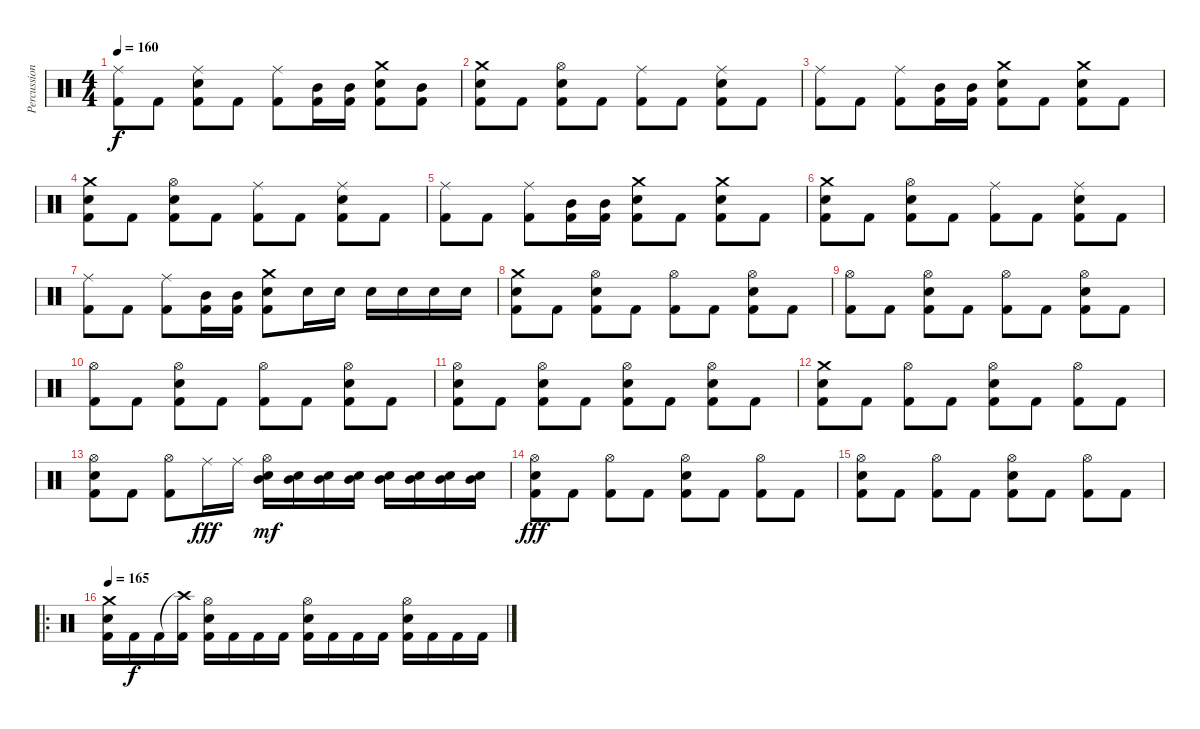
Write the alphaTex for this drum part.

\track ("Percussion" "Percussion") {instrument percussion}
\staff {score}
\articulation defaults
\ts (4 4)
\tempo 160
\clef neutral
\ks c
("Ride (middle)" "Kick (hit) 2").8{dy f} "Kick (hit) 2".8 ("Ride (middle)" "Electric Snare (hit)" "Kick (hit) 2").8 "Kick (hit) 2".8 ("Ride (middle)" "Kick (hit) 2").8 ("Mid Tom (hit)" "Kick (hit) 2").16 ("Mid Tom (hit)" "Kick (hit) 2").16 ("Crash medium (hit)" "Electric Snare (hit)" "Kick (hit) 2").8 ("Mid Tom (hit)" "Kick (hit) 2").8 |
("Crash medium (hit)" "Electric Snare (hit)" "Kick (hit) 2").8 "Kick (hit) 2".8 ("Hi-Hat (open)" "Electric Snare (hit)" "Kick (hit) 2").8 "Kick (hit) 2".8 ("Ride (middle)" "Kick (hit) 2").8 "Kick (hit) 2".8 ("Ride (middle)" "Electric Snare (hit)" "Kick (hit) 2").8 "Kick (hit) 2".8 |
("Ride (middle)" "Kick (hit) 2").8 "Kick (hit) 2".8 ("Ride (middle)" "Kick (hit) 2").8 ("Mid Tom (hit)" "Kick (hit) 2").16 ("Mid Tom (hit)" "Kick (hit) 2").16 ("Crash medium (hit)" "Electric Snare (hit)" "Kick (hit) 2").8 "Kick (hit) 2".8 ("Crash medium (hit)" "Electric Snare (hit)" "Kick (hit) 2").8 "Kick (hit) 2".8 |
("Crash medium (hit)" "Electric Snare (hit)" "Kick (hit) 2").8 "Kick (hit) 2".8 ("Hi-Hat (open)" "Electric Snare (hit)" "Kick (hit) 2").8 "Kick (hit) 2".8 ("Ride (middle)" "Kick (hit) 2").8 "Kick (hit) 2".8 ("Ride (middle)" "Electric Snare (hit)" "Kick (hit) 2").8 "Kick (hit) 2".8 |
("Ride (middle)" "Kick (hit) 2").8 "Kick (hit) 2".8 ("Ride (middle)" "Kick (hit) 2").8 ("Mid Tom (hit)" "Kick (hit) 2").16 ("Mid Tom (hit)" "Kick (hit) 2").16 ("Crash medium (hit)" "Electric Snare (hit)" "Kick (hit) 2").8 "Kick (hit) 2".8 ("Crash medium (hit)" "Electric Snare (hit)" "Kick (hit) 2").8 "Kick (hit) 2".8 |
("Crash medium (hit)" "Electric Snare (hit)" "Kick (hit) 2").8 "Kick (hit) 2".8 ("Hi-Hat (open)" "Electric Snare (hit)" "Kick (hit) 2").8 "Kick (hit) 2".8 ("Ride (middle)" "Kick (hit) 2").8 "Kick (hit) 2".8 ("Ride (middle)" "Electric Snare (hit)" "Kick (hit) 2").8 "Kick (hit) 2".8 |
("Ride (middle)" "Kick (hit) 2").8 "Kick (hit) 2".8 ("Ride (middle)" "Kick (hit) 2").8 ("Mid Tom (hit)" "Kick (hit) 2").16 ("Mid Tom (hit)" "Kick (hit) 2").16 ("Crash medium (hit)" "Electric Snare (hit)" "Kick (hit) 2").8 "Electric Snare (hit)".16 "Electric Snare (hit)".16 "Electric Snare (hit)".16 "Electric Snare (hit)".16 "Electric Snare (hit)".16 "Electric Snare (hit)".16 |
("Crash medium (hit)" "Electric Snare (hit)" "Kick (hit) 2").8 "Kick (hit) 2".8 ("Hi-Hat (open)" "Electric Snare (hit)" "Kick (hit) 2").8 "Kick (hit) 2".8 ("Hi-Hat (open)" "Kick (hit) 2").8 "Kick (hit) 2".8 ("Hi-Hat (open)" "Electric Snare (hit)" "Kick (hit) 2").8 "Kick (hit) 2".8 |
("Hi-Hat (open)" "Kick (hit) 2").8 "Kick (hit) 2".8 ("Hi-Hat (open)" "Electric Snare (hit)" "Kick (hit) 2").8 "Kick (hit) 2".8 ("Hi-Hat (open)" "Kick (hit) 2").8 "Kick (hit) 2".8 ("Hi-Hat (open)" "Electric Snare (hit)" "Kick (hit) 2").8 "Kick (hit) 2".8 |
("Hi-Hat (open)" "Kick (hit) 2").8 "Kick (hit) 2".8 ("Hi-Hat (open)" "Electric Snare (hit)" "Kick (hit) 2").8 "Kick (hit) 2".8 ("Hi-Hat (open)" "Kick (hit) 2").8 "Kick (hit) 2".8 ("Hi-Hat (open)" "Electric Snare (hit)" "Kick (hit) 2").8 "Kick (hit) 2".8 |
("Hi-Hat (open)" "Electric Snare (hit)" "Kick (hit) 2").8 "Kick (hit) 2".8 ("Hi-Hat (open)" "Electric Snare (hit)" "Kick (hit) 2").8 "Kick (hit) 2".8 ("Hi-Hat (open)" "Electric Snare (hit)" "Kick (hit) 2").8 "Kick (hit) 2".8 ("Hi-Hat (open)" "Electric Snare (hit)" "Kick (hit) 2").8 "Kick (hit) 2".8 |
("Crash medium (hit)" "Electric Snare (hit)" "Kick (hit) 2").8 "Kick (hit) 2".8 ("Hi-Hat (open)" "Kick (hit) 2").8 "Kick (hit) 2".8 ("Hi-Hat (open)" "Electric Snare (hit)" "Kick (hit) 2").8 "Kick (hit) 2".8 ("Hi-Hat (open)" "Kick (hit) 2").8 "Kick (hit) 2".8 |
("Hi-Hat (open)" "Electric Snare (hit)" "Kick (hit) 2").8 "Kick (hit) 2".8 ("Hi-Hat (open)" "Kick (hit) 2").8 "Ride (middle)".16{dy fff} "Ride (middle)".16 ("Hi-Hat (open)" "Electric Snare (hit)" "Mid Tom (hit)").16{dy mf} ("Electric Snare (hit)" "Mid Tom (hit)").16 ("Electric Snare (hit)" "Mid Tom (hit)").16 ("Electric Snare (hit)" "Mid Tom (hit)").16 ("Electric Snare (hit)" "Mid Tom (hit)").16 ("Electric Snare (hit)" "Mid Tom (hit)").16 ("Electric Snare (hit)" "Mid Tom (hit)").16 ("Electric Snare (hit)" "Mid Tom (hit)").16 |
("Hi-Hat (open)" "Electric Snare (hit)" "Kick (hit) 2").8{dy fff} "Kick (hit) 2".8 ("Hi-Hat (open)" "Kick (hit) 2").8 "Kick (hit) 2".8 ("Hi-Hat (open)" "Electric Snare (hit)" "Kick (hit) 2").8 "Kick (hit) 2".8 ("Hi-Hat (open)" "Kick (hit) 2").8 "Kick (hit) 2".8 |
("Hi-Hat (open)" "Electric Snare (hit)" "Kick (hit) 2").8 "Kick (hit) 2".8 ("Hi-Hat (open)" "Kick (hit) 2").8 "Kick (hit) 2".8 ("Hi-Hat (open)" "Electric Snare (hit)" "Kick (hit) 2").8 "Kick (hit) 2".8 ("Hi-Hat (open)" "Kick (hit) 2").8 "Kick (hit) 2".8 |
\ro
\tempo 165
("Crash medium (hit)" "Electric Snare (hit)" "Kick (hit) 2").16 "Kick (hit) 2".16{dy f} "Kick (hit) 2".16 ("Crash high (hit)"{t} "Kick (hit) 2").16 ("Hi-Hat (open)" "Electric Snare (hit)" "Kick (hit) 2").16 "Kick (hit) 2".16 "Kick (hit) 2".16 "Kick (hit) 2".16 ("Hi-Hat (open)" "Electric Snare (hit)" "Kick (hit) 2").16 "Kick (hit) 2".16 "Kick (hit) 2".16 "Kick (hit) 2".16 ("Hi-Hat (open)" "Electric Snare (hit)" "Kick (hit) 2").16 "Kick (hit) 2".16 "Kick (hit) 2".16 "Kick (hit) 2".16
